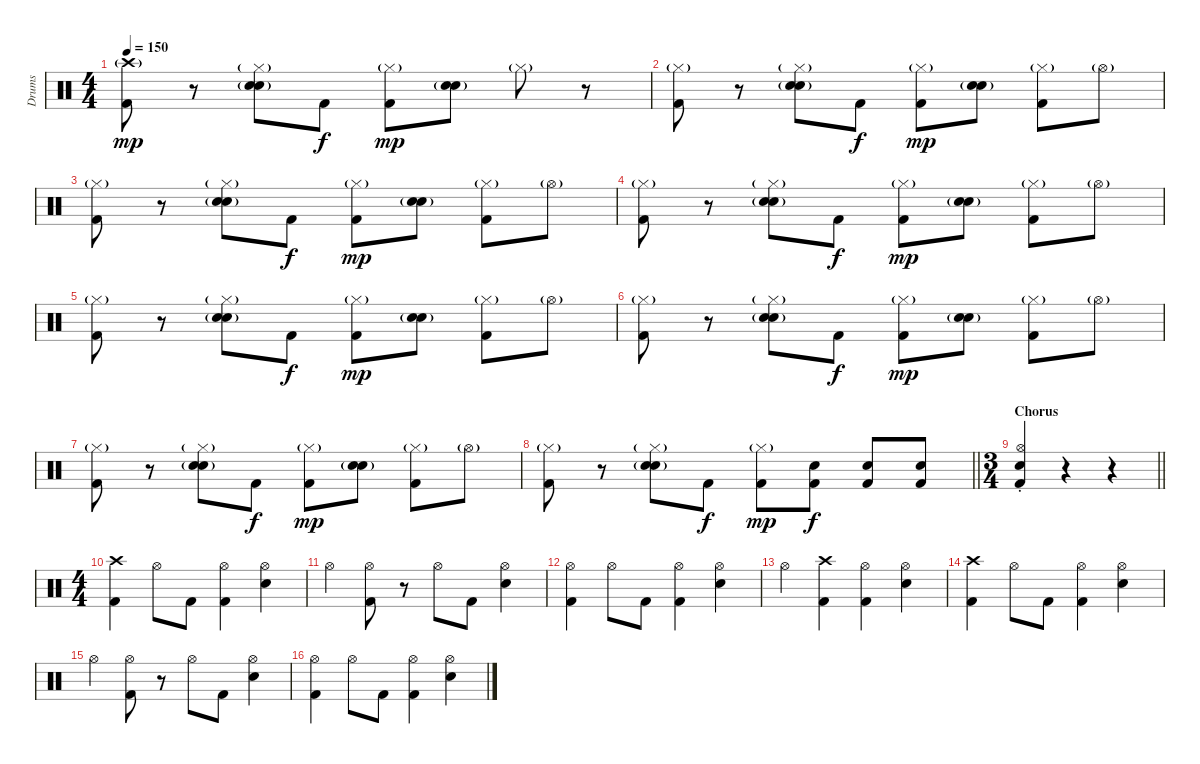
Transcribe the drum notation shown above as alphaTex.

\track ("Drums" "Drums") {instrument percussion}
\staff {score}
\articulation defaults
\ts (4 4)
\tempo 150
\clef neutral
\ks c
("Kick (hit) 2" "Crash high (hit)"{g}).8{dy mp volume 12} r.8 ("Hi-Hat (closed)"{g} "Electric Snare (hit)" "Hand Clap (hit)"{g}).8 "Kick (hit) 2".8{dy f} ("Kick (hit) 2" "Hi-Hat (closed)"{g}).8{dy mp} ("Electric Snare (hit)" "Hand Clap (hit)"{g}).8 "Hi-Hat (closed)"{g}.8 r.8 |
("Kick (hit) 2" "Hi-Hat (closed)"{g}).8 r.8 ("Hi-Hat (closed)"{g} "Electric Snare (hit)" "Hand Clap (hit)"{g}).8 "Kick (hit) 2".8{dy f} ("Kick (hit) 2" "Hi-Hat (closed)"{g}).8{dy mp} ("Electric Snare (hit)" "Hand Clap (hit)"{g}).8 ("Kick (hit) 2" "Hi-Hat (closed)"{g}).8 "Hi-Hat (open)"{g}.8 |
("Kick (hit) 2" "Hi-Hat (closed)"{g}).8 r.8 ("Hi-Hat (closed)"{g} "Electric Snare (hit)" "Hand Clap (hit)"{g}).8 "Kick (hit) 2".8{dy f} ("Kick (hit) 2" "Hi-Hat (closed)"{g}).8{dy mp} ("Electric Snare (hit)" "Hand Clap (hit)"{g}).8 ("Kick (hit) 2" "Hi-Hat (closed)"{g}).8 "Hi-Hat (open)"{g}.8 |
("Kick (hit) 2" "Hi-Hat (closed)"{g}).8 r.8 ("Hi-Hat (closed)"{g} "Electric Snare (hit)" "Hand Clap (hit)"{g}).8 "Kick (hit) 2".8{dy f} ("Kick (hit) 2" "Hi-Hat (closed)"{g}).8{dy mp} ("Electric Snare (hit)" "Hand Clap (hit)"{g}).8 ("Kick (hit) 2" "Hi-Hat (closed)"{g}).8 "Hi-Hat (open)"{g}.8 |
("Kick (hit) 2" "Hi-Hat (closed)"{g}).8 r.8 ("Hi-Hat (closed)"{g} "Electric Snare (hit)" "Hand Clap (hit)"{g}).8 "Kick (hit) 2".8{dy f} ("Kick (hit) 2" "Hi-Hat (closed)"{g}).8{dy mp} ("Electric Snare (hit)" "Hand Clap (hit)"{g}).8 ("Kick (hit) 2" "Hi-Hat (closed)"{g}).8 "Hi-Hat (open)"{g}.8 |
("Kick (hit) 2" "Hi-Hat (closed)"{g}).8 r.8 ("Hi-Hat (closed)"{g} "Electric Snare (hit)" "Hand Clap (hit)"{g}).8 "Kick (hit) 2".8{dy f} ("Kick (hit) 2" "Hi-Hat (closed)"{g}).8{dy mp} ("Electric Snare (hit)" "Hand Clap (hit)"{g}).8 ("Kick (hit) 2" "Hi-Hat (closed)"{g}).8 "Hi-Hat (open)"{g}.8 |
("Kick (hit) 2" "Hi-Hat (closed)"{g}).8 r.8 ("Hi-Hat (closed)"{g} "Electric Snare (hit)" "Hand Clap (hit)"{g}).8 "Kick (hit) 2".8{dy f} ("Kick (hit) 2" "Hi-Hat (closed)"{g}).8{dy mp} ("Electric Snare (hit)" "Hand Clap (hit)"{g}).8 ("Kick (hit) 2" "Hi-Hat (closed)"{g}).8 "Hi-Hat (open)"{g}.8 |
\barLineRight lightlight
("Kick (hit) 2" "Hi-Hat (closed)"{g}).8 r.8 ("Hi-Hat (closed)"{g} "Electric Snare (hit)" "Hand Clap (hit)"{g}).8 "Kick (hit) 2".8{dy f} ("Kick (hit) 2" "Hi-Hat (closed)"{g}).8{dy mp} ("Kick (hit) 2" "Snare (hit) 2").8{dy f} ("Kick (hit) 2" "Snare (hit) 2").8 ("Kick (hit) 2" "Snare (hit) 2").8 |
\ts (3 4)
\section ("" "Chorus")
\barLineRight lightlight
("Kick (hit) 2" "Hi-Hat (open)"{st} "Snare (hit) 2").4 r.4 r.4 |
\ts (4 4)
("Kick (hit) 2" "Crash high (hit)").4{volume 16} "Hi-Hat (open)".8 "Kick (hit) 2".8 ("Kick (hit) 2" "Hi-Hat (open)").4 ("Hi-Hat (open)" "Snare (hit) 2").4 |
"Hi-Hat (open)".4 ("Kick (hit) 2" "Hi-Hat (open)").8 r.8 "Hi-Hat (open)".8 "Kick (hit) 2".8 ("Hi-Hat (open)" "Snare (hit) 2").4 |
("Kick (hit) 2" "Hi-Hat (open)").4 "Hi-Hat (open)".8 "Kick (hit) 2".8 ("Kick (hit) 2" "Hi-Hat (open)").4 ("Hi-Hat (open)" "Snare (hit) 2").4 |
"Hi-Hat (open)".4 ("Kick (hit) 2" "Crash high (hit)").4 ("Kick (hit) 2" "Hi-Hat (open)").4 ("Hi-Hat (open)" "Snare (hit) 2").4 |
("Kick (hit) 2" "Crash high (hit)").4 "Hi-Hat (open)".8 "Kick (hit) 2".8 ("Kick (hit) 2" "Hi-Hat (open)").4 ("Hi-Hat (open)" "Snare (hit) 2").4 |
"Hi-Hat (open)".4 ("Kick (hit) 2" "Hi-Hat (open)").8 r.8 "Hi-Hat (open)".8 "Kick (hit) 2".8 ("Hi-Hat (open)" "Snare (hit) 2").4 |
("Kick (hit) 2" "Hi-Hat (open)").4 "Hi-Hat (open)".8 "Kick (hit) 2".8 ("Kick (hit) 2" "Hi-Hat (open)").4 ("Hi-Hat (open)" "Snare (hit) 2").4
